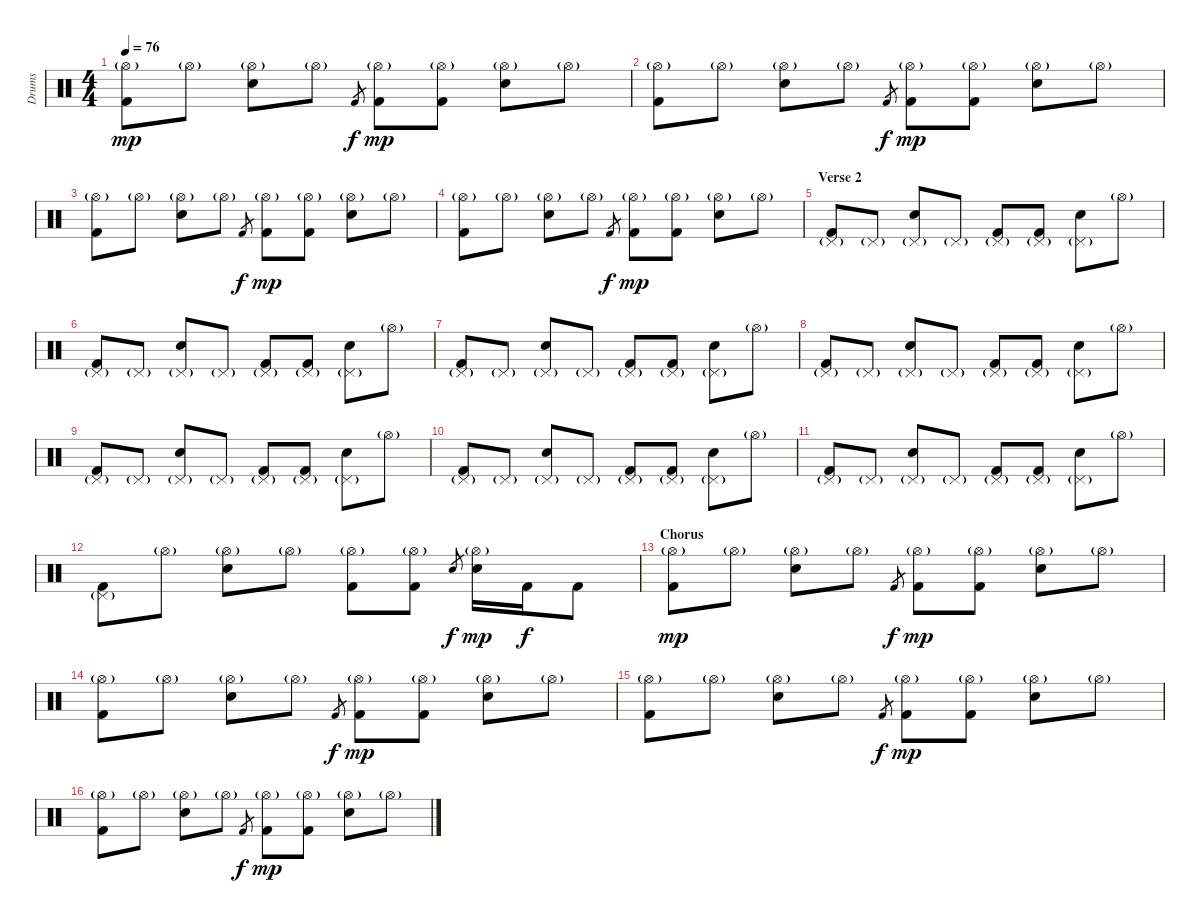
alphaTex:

\track ("Drums" "Drums") {instrument percussion}
\staff {score}
\articulation defaults
\ts (4 4)
\tempo 76
\clef neutral
\ks c
("Kick (hit) 2" "Hi-Hat (open)"{g}).8{dy mp} "Hi-Hat (open)"{g}.8 ("Electric Snare (hit)" "Hi-Hat (open)"{g}).8 "Hi-Hat (open)"{g}.8 "Kick (hit) 2".8{gr dy f} ("Kick (hit) 2" "Hi-Hat (open)"{g}).8{dy mp} ("Kick (hit) 2" "Hi-Hat (open)"{g}).8 ("Electric Snare (hit)" "Hi-Hat (open)"{g}).8 "Hi-Hat (open)"{g}.8 |
("Kick (hit) 2" "Hi-Hat (open)"{g}).8 "Hi-Hat (open)"{g}.8 ("Electric Snare (hit)" "Hi-Hat (open)"{g}).8 "Hi-Hat (open)"{g}.8 "Kick (hit) 2".8{gr dy f} ("Kick (hit) 2" "Hi-Hat (open)"{g}).8{dy mp} ("Kick (hit) 2" "Hi-Hat (open)"{g}).8 ("Electric Snare (hit)" "Hi-Hat (open)"{g}).8 "Hi-Hat (open)"{g}.8 |
("Kick (hit) 2" "Hi-Hat (open)"{g}).8 "Hi-Hat (open)"{g}.8 ("Electric Snare (hit)" "Hi-Hat (open)"{g}).8 "Hi-Hat (open)"{g}.8 "Kick (hit) 2".8{gr dy f} ("Kick (hit) 2" "Hi-Hat (open)"{g}).8{dy mp} ("Kick (hit) 2" "Hi-Hat (open)"{g}).8 ("Electric Snare (hit)" "Hi-Hat (open)"{g}).8 "Hi-Hat (open)"{g}.8 |
("Kick (hit) 2" "Hi-Hat (open)"{g}).8 "Hi-Hat (open)"{g}.8 ("Electric Snare (hit)" "Hi-Hat (open)"{g}).8 "Hi-Hat (open)"{g}.8 "Kick (hit) 2".8{gr dy f} ("Kick (hit) 2" "Hi-Hat (open)"{g}).8{dy mp} ("Kick (hit) 2" "Hi-Hat (open)"{g}).8 ("Electric Snare (hit)" "Hi-Hat (open)"{g}).8 "Hi-Hat (open)"{g}.8 |
\section ("" "Verse 2")
("Kick (hit) 2" "Pedal Hi-Hat (hit)"{g}).8 "Pedal Hi-Hat (hit)"{g}.8 ("Electric Snare (hit)" "Pedal Hi-Hat (hit)"{g}).8 "Pedal Hi-Hat (hit)"{g}.8 ("Kick (hit) 2" "Pedal Hi-Hat (hit)"{g}).8 ("Kick (hit) 2" "Pedal Hi-Hat (hit)"{g}).8 ("Electric Snare (hit)" "Pedal Hi-Hat (hit)"{g}).8 "Hi-Hat (open)"{g}.8 |
("Kick (hit) 2" "Pedal Hi-Hat (hit)"{g}).8 "Pedal Hi-Hat (hit)"{g}.8 ("Electric Snare (hit)" "Pedal Hi-Hat (hit)"{g}).8 "Pedal Hi-Hat (hit)"{g}.8 ("Kick (hit) 2" "Pedal Hi-Hat (hit)"{g}).8 ("Kick (hit) 2" "Pedal Hi-Hat (hit)"{g}).8 ("Electric Snare (hit)" "Pedal Hi-Hat (hit)"{g}).8 "Hi-Hat (open)"{g}.8 |
("Kick (hit) 2" "Pedal Hi-Hat (hit)"{g}).8 "Pedal Hi-Hat (hit)"{g}.8 ("Electric Snare (hit)" "Pedal Hi-Hat (hit)"{g}).8 "Pedal Hi-Hat (hit)"{g}.8 ("Kick (hit) 2" "Pedal Hi-Hat (hit)"{g}).8 ("Kick (hit) 2" "Pedal Hi-Hat (hit)"{g}).8 ("Electric Snare (hit)" "Pedal Hi-Hat (hit)"{g}).8 "Hi-Hat (open)"{g}.8 |
("Kick (hit) 2" "Pedal Hi-Hat (hit)"{g}).8 "Pedal Hi-Hat (hit)"{g}.8 ("Electric Snare (hit)" "Pedal Hi-Hat (hit)"{g}).8 "Pedal Hi-Hat (hit)"{g}.8 ("Kick (hit) 2" "Pedal Hi-Hat (hit)"{g}).8 ("Kick (hit) 2" "Pedal Hi-Hat (hit)"{g}).8 ("Electric Snare (hit)" "Pedal Hi-Hat (hit)"{g}).8 "Hi-Hat (open)"{g}.8 |
("Kick (hit) 2" "Pedal Hi-Hat (hit)"{g}).8 "Pedal Hi-Hat (hit)"{g}.8 ("Electric Snare (hit)" "Pedal Hi-Hat (hit)"{g}).8 "Pedal Hi-Hat (hit)"{g}.8 ("Kick (hit) 2" "Pedal Hi-Hat (hit)"{g}).8 ("Kick (hit) 2" "Pedal Hi-Hat (hit)"{g}).8 ("Electric Snare (hit)" "Pedal Hi-Hat (hit)"{g}).8 "Hi-Hat (open)"{g}.8 |
("Kick (hit) 2" "Pedal Hi-Hat (hit)"{g}).8 "Pedal Hi-Hat (hit)"{g}.8 ("Electric Snare (hit)" "Pedal Hi-Hat (hit)"{g}).8 "Pedal Hi-Hat (hit)"{g}.8 ("Kick (hit) 2" "Pedal Hi-Hat (hit)"{g}).8 ("Kick (hit) 2" "Pedal Hi-Hat (hit)"{g}).8 ("Electric Snare (hit)" "Pedal Hi-Hat (hit)"{g}).8 "Hi-Hat (open)"{g}.8 |
("Kick (hit) 2" "Pedal Hi-Hat (hit)"{g}).8 "Pedal Hi-Hat (hit)"{g}.8 ("Electric Snare (hit)" "Pedal Hi-Hat (hit)"{g}).8 "Pedal Hi-Hat (hit)"{g}.8 ("Kick (hit) 2" "Pedal Hi-Hat (hit)"{g}).8 ("Kick (hit) 2" "Pedal Hi-Hat (hit)"{g}).8 ("Electric Snare (hit)" "Pedal Hi-Hat (hit)"{g}).8 "Hi-Hat (open)"{g}.8 |
("Kick (hit) 2" "Pedal Hi-Hat (hit)"{g}).8 "Hi-Hat (open)"{g}.8 ("Electric Snare (hit)" "Hi-Hat (open)"{g}).8 "Hi-Hat (open)"{g}.8 ("Kick (hit) 2" "Hi-Hat (open)"{g}).8 ("Kick (hit) 2" "Hi-Hat (open)"{g}).8 "Electric Snare (hit)".8{gr dy f} ("Electric Snare (hit)" "Hi-Hat (open)"{g}).16{dy mp} "Kick (hit) 2".16{dy f} "Kick (hit) 2".8 |
\section ("" "Chorus")
("Kick (hit) 2" "Hi-Hat (open)"{g}).8{dy mp} "Hi-Hat (open)"{g}.8 ("Electric Snare (hit)" "Hi-Hat (open)"{g}).8 "Hi-Hat (open)"{g}.8 "Kick (hit) 2".8{gr dy f} ("Kick (hit) 2" "Hi-Hat (open)"{g}).8{dy mp} ("Kick (hit) 2" "Hi-Hat (open)"{g}).8 ("Electric Snare (hit)" "Hi-Hat (open)"{g}).8 "Hi-Hat (open)"{g}.8 |
("Kick (hit) 2" "Hi-Hat (open)"{g}).8 "Hi-Hat (open)"{g}.8 ("Electric Snare (hit)" "Hi-Hat (open)"{g}).8 "Hi-Hat (open)"{g}.8 "Kick (hit) 2".8{gr dy f} ("Kick (hit) 2" "Hi-Hat (open)"{g}).8{dy mp} ("Kick (hit) 2" "Hi-Hat (open)"{g}).8 ("Electric Snare (hit)" "Hi-Hat (open)"{g}).8 "Hi-Hat (open)"{g}.8 |
("Kick (hit) 2" "Hi-Hat (open)"{g}).8 "Hi-Hat (open)"{g}.8 ("Electric Snare (hit)" "Hi-Hat (open)"{g}).8 "Hi-Hat (open)"{g}.8 "Kick (hit) 2".8{gr dy f} ("Kick (hit) 2" "Hi-Hat (open)"{g}).8{dy mp} ("Kick (hit) 2" "Hi-Hat (open)"{g}).8 ("Electric Snare (hit)" "Hi-Hat (open)"{g}).8 "Hi-Hat (open)"{g}.8 |
("Kick (hit) 2" "Hi-Hat (open)"{g}).8 "Hi-Hat (open)"{g}.8 ("Electric Snare (hit)" "Hi-Hat (open)"{g}).8 "Hi-Hat (open)"{g}.8 "Kick (hit) 2".8{gr dy f} ("Kick (hit) 2" "Hi-Hat (open)"{g}).8{dy mp} ("Kick (hit) 2" "Hi-Hat (open)"{g}).8 ("Electric Snare (hit)" "Hi-Hat (open)"{g}).8 "Hi-Hat (open)"{g}.8
